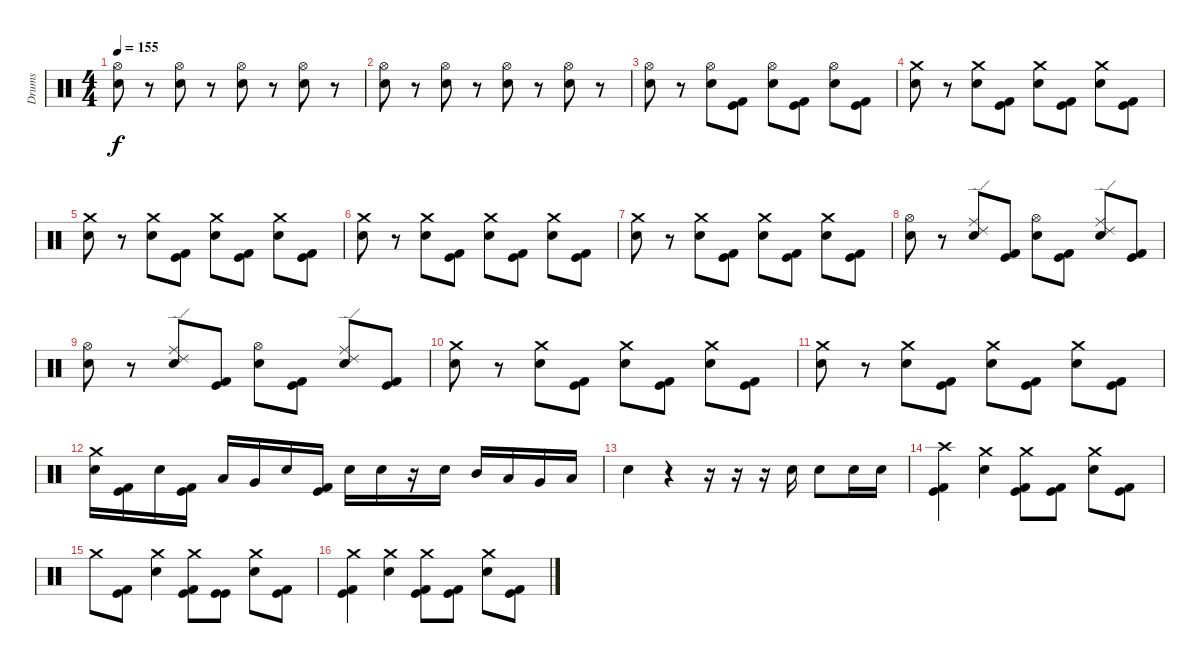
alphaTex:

\track ("Drums" "Drums") {instrument percussion}
\staff {score}
\articulation defaults
\ts (4 4)
\tempo 155
\clef neutral
\ks c
("Hi-Hat (open)" "Electric Snare (hit)").8{dy f} r.8 ("Hi-Hat (open)" "Electric Snare (hit)").8 r.8 ("Hi-Hat (open)" "Electric Snare (hit)").8 r.8 ("Hi-Hat (open)" "Electric Snare (hit)").8 r.8 |
("Hi-Hat (open)" "Electric Snare (hit)").8 r.8 ("Hi-Hat (open)" "Electric Snare (hit)").8 r.8 ("Hi-Hat (open)" "Electric Snare (hit)").8 r.8 ("Hi-Hat (open)" "Electric Snare (hit)").8 r.8 |
("Hi-Hat (open)" "Electric Snare (hit)").8 r.8 ("Hi-Hat (open)" "Electric Snare (hit)").8 ("Kick (hit)" "Kick (hit) 2").8 ("Hi-Hat (open)" "Electric Snare (hit)").8 ("Kick (hit)" "Kick (hit) 2").8 ("Hi-Hat (open)" "Electric Snare (hit)").8 ("Kick (hit)" "Kick (hit) 2").8 |
("Crash medium (hit)" "Electric Snare (hit)").8 r.8 ("Crash medium (hit)" "Electric Snare (hit)").8 ("Kick (hit)" "Kick (hit) 2").8 ("Crash medium (hit)" "Electric Snare (hit)").8 ("Kick (hit)" "Kick (hit) 2").8 ("Crash medium (hit)" "Electric Snare (hit)").8 ("Kick (hit) 2" "Kick (hit)").8 |
("Crash medium (hit)" "Electric Snare (hit)").8 r.8 ("Crash medium (hit)" "Electric Snare (hit)").8 ("Kick (hit)" "Kick (hit) 2").8 ("Crash medium (hit)" "Electric Snare (hit)").8 ("Kick (hit)" "Kick (hit) 2").8 ("Crash medium (hit)" "Electric Snare (hit)").8 ("Kick (hit) 2" "Kick (hit)").8 |
("Crash medium (hit)" "Electric Snare (hit)").8 r.8 ("Crash medium (hit)" "Electric Snare (hit)").8 ("Kick (hit)" "Kick (hit) 2").8 ("Crash medium (hit)" "Electric Snare (hit)").8 ("Kick (hit)" "Kick (hit) 2").8 ("Crash medium (hit)" "Electric Snare (hit)").8 ("Kick (hit) 2" "Kick (hit)").8 |
("Crash medium (hit)" "Electric Snare (hit)").8 r.8 ("Crash medium (hit)" "Electric Snare (hit)").8 ("Kick (hit)" "Kick (hit) 2").8 ("Crash medium (hit)" "Electric Snare (hit)").8 ("Kick (hit)" "Kick (hit) 2").8 ("Crash medium (hit)" "Electric Snare (hit)").8 ("Kick (hit) 2" "Kick (hit)").8 |
("Hi-Hat (open)" "Electric Snare (hit)").8 r.8 ("Ride (middle)" "Ride (edge) 2" "Electric Snare (hit)").8 ("Kick (hit)" "Kick (hit) 2").8 ("Hi-Hat (open)" "Electric Snare (hit)").8 ("Kick (hit)" "Kick (hit) 2").8 ("Ride (edge) 2" "Ride (middle)" "Electric Snare (hit)").8 ("Kick (hit) 2" "Kick (hit)").8 |
("Hi-Hat (open)" "Electric Snare (hit)").8 r.8 ("Ride (middle)" "Ride (edge) 2" "Electric Snare (hit)").8 ("Kick (hit)" "Kick (hit) 2").8 ("Hi-Hat (open)" "Electric Snare (hit)").8 ("Kick (hit)" "Kick (hit) 2").8 ("Ride (edge) 2" "Ride (middle)" "Electric Snare (hit)").8 ("Kick (hit) 2" "Kick (hit)").8 |
("Crash medium (hit)" "Electric Snare (hit)").8 r.8 ("Crash medium (hit)" "Electric Snare (hit)").8 ("Kick (hit)" "Kick (hit) 2").8 ("Crash medium (hit)" "Electric Snare (hit)").8 ("Kick (hit)" "Kick (hit) 2").8 ("Crash medium (hit)" "Electric Snare (hit)").8 ("Kick (hit) 2" "Kick (hit)").8 |
("Crash medium (hit)" "Electric Snare (hit)").8 r.8 ("Crash medium (hit)" "Electric Snare (hit)").8 ("Kick (hit)" "Kick (hit) 2").8 ("Crash medium (hit)" "Electric Snare (hit)").8 ("Kick (hit)" "Kick (hit) 2").8 ("Crash medium (hit)" "Electric Snare (hit)").8 ("Kick (hit) 2" "Kick (hit)").8 |
("Crash medium (hit)" "Electric Snare (hit)").16 ("Kick (hit)" "Kick (hit) 2").16 "Electric Snare (hit)".16 ("Kick (hit)" "Kick (hit) 2").16 "Low Tom (hit)".16 "Very Low Tom (hit)".16 "Electric Snare (hit)".16 ("Kick (hit)" "Kick (hit) 2").16 "Electric Snare (hit)".16 "Electric Snare (hit)".16 r.16 "Electric Snare (hit)".16 "Mid Tom (hit)".16 "Low Tom (hit)".16 "Very Low Tom (hit)".16 "Low Floor Tom (hit)".16 |
"Electric Snare (hit)".4 r.4 r.16 r.16 r.16 "Electric Snare (hit)".16 "Electric Snare (hit)".8 "Electric Snare (hit)".16 "Electric Snare (hit)".16 |
("Crash high (hit)" "Kick (hit)" "Kick (hit) 2").4 ("Crash medium (hit)" "Electric Snare (hit)").4 ("Crash medium (hit)" "Kick (hit)" "Kick (hit) 2").8 ("Kick (hit)" "Kick (hit) 2").8 ("Crash medium (hit)" "Electric Snare (hit)").8 ("Kick (hit)" "Kick (hit) 2").8 |
"Crash medium (hit)".8 ("Kick (hit)" "Kick (hit) 2").8 ("Crash medium (hit)" "Electric Snare (hit)").4 ("Crash medium (hit)" "Kick (hit)" "Kick (hit) 2").8 ("Kick (hit)" "Kick (hit)").8 ("Crash medium (hit)" "Electric Snare (hit)").8 ("Kick (hit)" "Kick (hit) 2").8 |
("Crash medium (hit)" "Kick (hit)" "Kick (hit) 2").4 ("Crash medium (hit)" "Electric Snare (hit)").4 ("Crash medium (hit)" "Kick (hit)" "Kick (hit) 2").8 ("Kick (hit)" "Kick (hit) 2").8 ("Crash medium (hit)" "Electric Snare (hit)").8 ("Kick (hit)" "Kick (hit) 2").8
